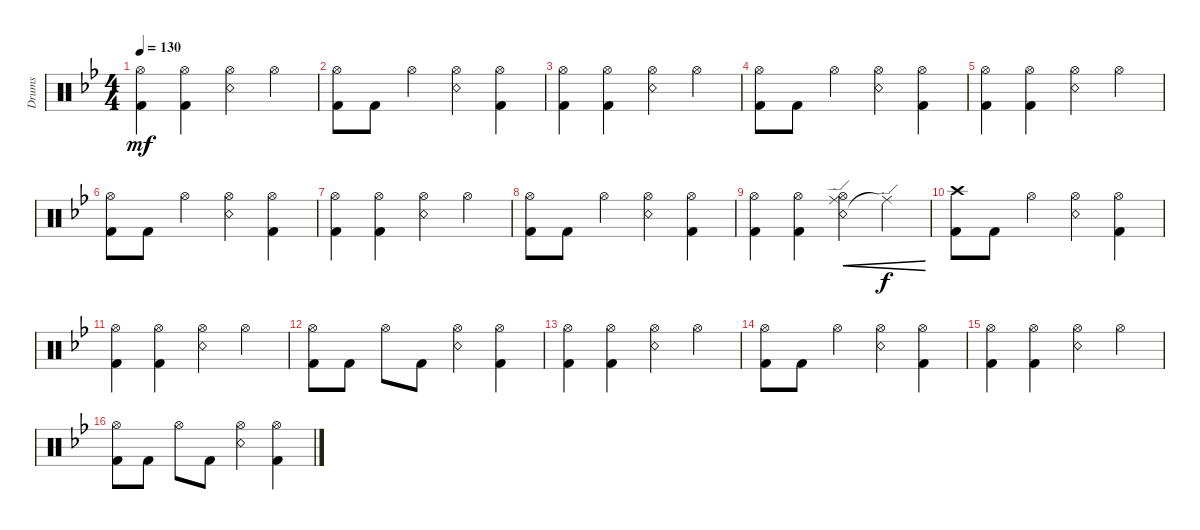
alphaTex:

\bracketExtendMode groupsimilarinstruments
\otherSystemsTrackNameOrientation horizontal
\track ("Schlagzeug" "Drums") {instrument percussion}
\staff {score}
\articulation defaults
\ts (4 4)
\tempo 130
\clef neutral
\ks bb
("Kick (hit) 2"{acc forcenatural} "Hi-Hat (open)"{acc forcenatural}).4{dy mf beam Down} ("Kick (hit) 2"{acc forcenatural} "Hi-Hat (open)"{acc forcenatural}).4{beam Down} ("Snare (rim shot)"{acc forcenatural} "Hi-Hat (open)"{acc forcenatural}).4{beam Down} "Hi-Hat (open)"{acc forcenatural}.4{beam Down} |
("Kick (hit) 2"{acc forcenatural} "Hi-Hat (open)"{acc forcenatural}).8{beam Down} "Kick (hit) 2"{acc forcenatural}.8{beam Down} "Hi-Hat (open)"{acc forcenatural}.4{beam Down} ("Snare (rim shot)"{acc forcenatural} "Hi-Hat (open)"{acc forcenatural}).4{beam Down} ("Kick (hit) 2"{acc forcenatural} "Hi-Hat (open)"{acc forcenatural}).4{beam Down} |
("Kick (hit) 2"{acc forcenatural} "Hi-Hat (open)"{acc forcenatural}).4{beam Down} ("Kick (hit) 2"{acc forcenatural} "Hi-Hat (open)"{acc forcenatural}).4{beam Down} ("Snare (rim shot)"{acc forcenatural} "Hi-Hat (open)"{acc forcenatural}).4{beam Down} "Hi-Hat (open)"{acc forcenatural}.4{beam Down} |
("Kick (hit) 2"{acc forcenatural} "Hi-Hat (open)"{acc forcenatural}).8{beam Down} "Kick (hit) 2"{acc forcenatural}.8{beam Down} "Hi-Hat (open)"{acc forcenatural}.4{beam Down} ("Snare (rim shot)"{acc forcenatural} "Hi-Hat (open)"{acc forcenatural}).4{beam Down} ("Kick (hit) 2"{acc forcenatural} "Hi-Hat (open)"{acc forcenatural}).4{beam Down} |
("Kick (hit) 2"{acc forcenatural} "Hi-Hat (open)"{acc forcenatural}).4{beam Down} ("Kick (hit) 2"{acc forcenatural} "Hi-Hat (open)"{acc forcenatural}).4{beam Down} ("Snare (rim shot)"{acc forcenatural} "Hi-Hat (open)"{acc forcenatural}).4{beam Down} "Hi-Hat (open)"{acc forcenatural}.4{beam Down} |
("Kick (hit) 2"{acc forcenatural} "Hi-Hat (open)"{acc forcenatural}).8{beam Down} "Kick (hit) 2"{acc forcenatural}.8{beam Down} "Hi-Hat (open)"{acc forcenatural}.4{beam Down} ("Snare (rim shot)"{acc forcenatural} "Hi-Hat (open)"{acc forcenatural}).4{beam Down} ("Kick (hit) 2"{acc forcenatural} "Hi-Hat (open)"{acc forcenatural}).4{beam Down} |
("Kick (hit) 2"{acc forcenatural} "Hi-Hat (open)"{acc forcenatural}).4{beam Down} ("Kick (hit) 2"{acc forcenatural} "Hi-Hat (open)"{acc forcenatural}).4{beam Down} ("Snare (rim shot)"{acc forcenatural} "Hi-Hat (open)"{acc forcenatural}).4{beam Down} "Hi-Hat (open)"{acc forcenatural}.4{beam Down} |
("Kick (hit) 2"{acc forcenatural} "Hi-Hat (open)"{acc forcenatural}).8{beam Down} "Kick (hit) 2"{acc forcenatural}.8{beam Down} "Hi-Hat (open)"{acc forcenatural}.4{beam Down} ("Snare (rim shot)"{acc forcenatural} "Hi-Hat (open)"{acc forcenatural}).4{beam Down} ("Kick (hit) 2"{acc forcenatural} "Hi-Hat (open)"{acc forcenatural}).4{beam Down} |
("Kick (hit) 2"{acc forcenatural} "Hi-Hat (open)"{acc forcenatural}).4{beam Down} ("Kick (hit) 2"{acc forcenatural} "Hi-Hat (open)"{acc forcenatural}).4{beam Down} ("Snare (rim shot)"{acc forcenatural} "Hi-Hat (open)"{acc forcenatural} "Ride (edge)"{acc forcenatural}).4{cre beam Down} "Ride (edge)"{t acc forcenatural}.4{cre dy f beam Down} |
("Kick (hit) 2"{acc forcenatural} "Crash high (hit)"{acc forcenatural}).8{beam Down} "Kick (hit) 2"{acc forcenatural}.8{beam Down} "Hi-Hat (open)"{acc forcenatural}.4{beam Down} ("Snare (rim shot)"{acc forcenatural} "Hi-Hat (open)"{acc forcenatural}).4{beam Down} ("Kick (hit) 2"{acc forcenatural} "Hi-Hat (open)"{acc forcenatural}).4{beam Down} |
("Kick (hit) 2"{acc forcenatural} "Hi-Hat (open)"{acc forcenatural}).4{beam Down} ("Kick (hit) 2"{acc forcenatural} "Hi-Hat (open)"{acc forcenatural}).4{beam Down} ("Snare (rim shot)"{acc forcenatural} "Hi-Hat (open)"{acc forcenatural}).4{beam Down} "Hi-Hat (open)"{acc forcenatural}.4{beam Down} |
("Kick (hit) 2"{acc forcenatural} "Hi-Hat (open)"{acc forcenatural}).8{beam Down} "Kick (hit) 2"{acc forcenatural}.8{beam Down} "Hi-Hat (open)"{acc forcenatural}.8{beam Down} "Kick (hit) 2"{acc forcenatural}.8{beam Down} ("Snare (rim shot)"{acc forcenatural} "Hi-Hat (open)"{acc forcenatural}).4{beam Down} ("Kick (hit) 2"{acc forcenatural} "Hi-Hat (open)"{acc forcenatural}).4{beam Down} |
("Kick (hit) 2"{acc forcenatural} "Hi-Hat (open)"{acc forcenatural}).4{beam Down} ("Kick (hit) 2"{acc forcenatural} "Hi-Hat (open)"{acc forcenatural}).4{beam Down} ("Snare (rim shot)"{acc forcenatural} "Hi-Hat (open)"{acc forcenatural}).4{beam Down} "Hi-Hat (open)"{acc forcenatural}.4{beam Down} |
("Kick (hit) 2"{acc forcenatural} "Hi-Hat (open)"{acc forcenatural}).8{beam Down} "Kick (hit) 2"{acc forcenatural}.8{beam Down} "Hi-Hat (open)"{acc forcenatural}.4{beam Down} ("Snare (rim shot)"{acc forcenatural} "Hi-Hat (open)"{acc forcenatural}).4{beam Down} ("Kick (hit) 2"{acc forcenatural} "Hi-Hat (open)"{acc forcenatural}).4{beam Down} |
("Kick (hit) 2"{acc forcenatural} "Hi-Hat (open)"{acc forcenatural}).4{beam Down} ("Kick (hit) 2"{acc forcenatural} "Hi-Hat (open)"{acc forcenatural}).4{beam Down} ("Snare (rim shot)"{acc forcenatural} "Hi-Hat (open)"{acc forcenatural}).4{beam Down} "Hi-Hat (open)"{acc forcenatural}.4{beam Down} |
("Kick (hit) 2"{acc forcenatural} "Hi-Hat (open)"{acc forcenatural}).8{beam Down} "Kick (hit) 2"{acc forcenatural}.8{beam Down} "Hi-Hat (open)"{acc forcenatural}.8{beam Down} "Kick (hit) 2"{acc forcenatural}.8{beam Down} ("Snare (rim shot)"{acc forcenatural} "Hi-Hat (open)"{acc forcenatural}).4{beam Down} ("Hi-Hat (open)"{acc forcenatural} "Kick (hit) 2"{acc forcenatural}).4{beam Down}
